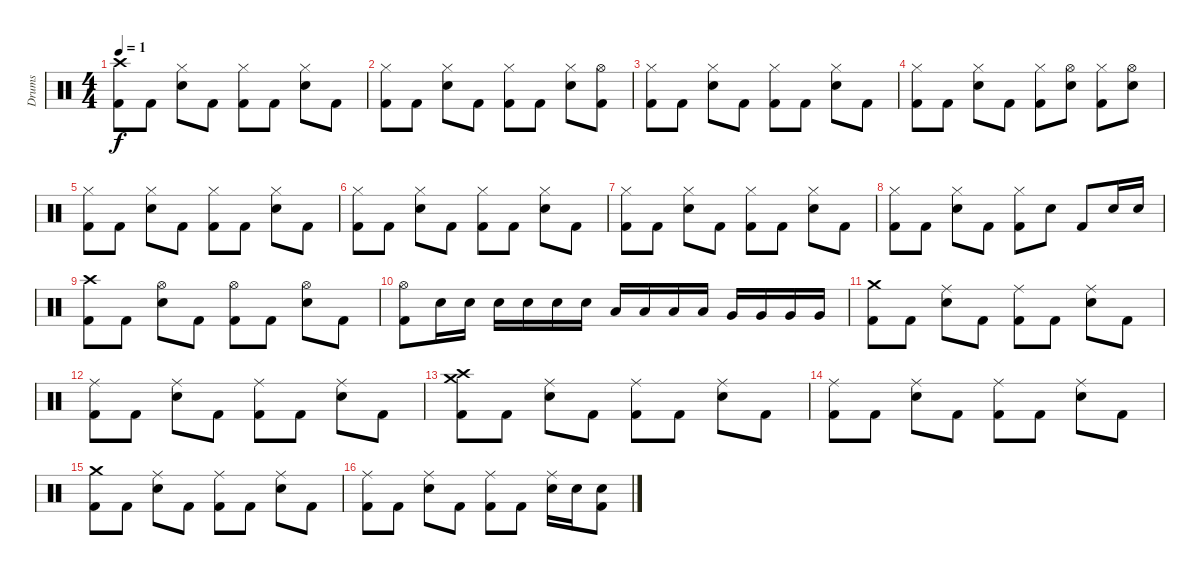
\track ("Drums" "Drums") {instrument percussion}
\staff {score}
\articulation defaults
\ts (4 4)
\tempo 1
\clef neutral
\ks c
("Crash high (hit)" "Kick (hit) 2").8{dy f} "Kick (hit) 2".8 ("Snare (hit) 2" "Hi-Hat (closed)").8 "Kick (hit) 2".8 ("Kick (hit) 2" "Hi-Hat (closed)").8 "Kick (hit) 2".8 ("Snare (hit) 2" "Hi-Hat (closed)").8 "Kick (hit) 2".8 |
("Kick (hit) 2" "Hi-Hat (closed)").8 "Kick (hit) 2".8 ("Snare (hit) 2" "Hi-Hat (closed)").8 "Kick (hit) 2".8 ("Kick (hit) 2" "Hi-Hat (closed)").8 "Kick (hit) 2".8 ("Snare (hit) 2" "Hi-Hat (closed)").8 ("Kick (hit) 2" "Hi-Hat (open)").8 |
("Kick (hit) 2" "Hi-Hat (closed)").8 "Kick (hit) 2".8 ("Snare (hit) 2" "Hi-Hat (closed)").8 "Kick (hit) 2".8 ("Kick (hit) 2" "Hi-Hat (closed)").8 "Kick (hit) 2".8 ("Snare (hit) 2" "Hi-Hat (closed)").8 "Kick (hit) 2".8 |
("Kick (hit) 2" "Hi-Hat (closed)").8 "Kick (hit) 2".8 ("Snare (hit) 2" "Hi-Hat (closed)").8 "Kick (hit) 2".8 ("Kick (hit) 2" "Hi-Hat (closed)").8 ("Hi-Hat (open)" "Snare (hit) 2").8 ("Kick (hit) 2" "Hi-Hat (closed)").8 ("Hi-Hat (open)" "Snare (hit) 2").8 |
("Kick (hit) 2" "Hi-Hat (closed)").8 "Kick (hit) 2".8 ("Snare (hit) 2" "Hi-Hat (closed)").8 "Kick (hit) 2".8 ("Kick (hit) 2" "Hi-Hat (closed)").8 "Kick (hit) 2".8 ("Snare (hit) 2" "Hi-Hat (closed)").8 "Kick (hit) 2".8 |
("Kick (hit) 2" "Hi-Hat (closed)").8 "Kick (hit) 2".8 ("Snare (hit) 2" "Hi-Hat (closed)").8 "Kick (hit) 2".8 ("Kick (hit) 2" "Hi-Hat (closed)").8 "Kick (hit) 2".8 ("Snare (hit) 2" "Hi-Hat (closed)").8 "Kick (hit) 2".8 |
("Kick (hit) 2" "Hi-Hat (closed)").8 "Kick (hit) 2".8 ("Snare (hit) 2" "Hi-Hat (closed)").8 "Kick (hit) 2".8 ("Kick (hit) 2" "Hi-Hat (closed)").8 "Kick (hit) 2".8 ("Snare (hit) 2" "Hi-Hat (closed)").8 "Kick (hit) 2".8 |
("Kick (hit) 2" "Hi-Hat (closed)").8 "Kick (hit) 2".8 ("Snare (hit) 2" "Hi-Hat (closed)").8 "Kick (hit) 2".8 ("Kick (hit) 2" "Hi-Hat (closed)").8 "Snare (hit) 2".8 "Kick (hit) 2".8 "Snare (hit) 2".16 "Snare (hit) 2".16 |
("Crash high (hit)" "Kick (hit) 2").8 "Kick (hit) 2".8 ("Hi-Hat (open)" "Snare (hit) 2").8 "Kick (hit) 2".8 ("Hi-Hat (open)" "Kick (hit) 2").8 "Kick (hit) 2".8 ("Hi-Hat (open)" "Snare (hit) 2").8 "Kick (hit) 2".8 |
("Hi-Hat (open)" "Kick (hit) 2").8 "Snare (hit) 2".16 "Snare (hit) 2".16 "Snare (hit) 2".16 "Snare (hit) 2".16 "Snare (hit) 2".16 "Snare (hit) 2".16 "Low Tom (hit)".16 "Low Tom (hit)".16 "Low Tom (hit)".16 "Low Tom (hit)".16 "Very Low Tom (hit)".16 "Very Low Tom (hit)".16 "Very Low Tom (hit)".16 "Very Low Tom (hit)".16 |
("Crash medium (hit)" "Kick (hit) 2").8 "Kick (hit) 2".8 ("Ride (middle)" "Snare (hit) 2").8 "Kick (hit) 2".8 ("Ride (middle)" "Kick (hit) 2").8 "Kick (hit) 2".8 ("Ride (middle)" "Snare (hit) 2").8 "Kick (hit) 2".8 |
("Ride (middle)" "Kick (hit) 2").8 "Kick (hit) 2".8 ("Ride (middle)" "Snare (hit) 2").8 "Kick (hit) 2".8 ("Ride (middle)" "Kick (hit) 2").8 "Kick (hit) 2".8 ("Ride (middle)" "Snare (hit) 2").8 "Kick (hit) 2".8 |
("Crash medium (hit)" "Kick (hit) 2" "Crash high (hit)").8 "Kick (hit) 2".8 ("Ride (middle)" "Snare (hit) 2").8 "Kick (hit) 2".8 ("Ride (middle)" "Kick (hit) 2").8 "Kick (hit) 2".8 ("Ride (middle)" "Snare (hit) 2").8 "Kick (hit) 2".8 |
("Ride (middle)" "Kick (hit) 2").8 "Kick (hit) 2".8 ("Ride (middle)" "Snare (hit) 2").8 "Kick (hit) 2".8 ("Ride (middle)" "Kick (hit) 2").8 "Kick (hit) 2".8 ("Ride (middle)" "Snare (hit) 2").8 "Kick (hit) 2".8 |
("Crash medium (hit)" "Kick (hit) 2").8 "Kick (hit) 2".8 ("Ride (middle)" "Snare (hit) 2").8 "Kick (hit) 2".8 ("Ride (middle)" "Kick (hit) 2").8 "Kick (hit) 2".8 ("Ride (middle)" "Snare (hit) 2").8 "Kick (hit) 2".8 |
("Ride (middle)" "Kick (hit) 2").8 "Kick (hit) 2".8 ("Ride (middle)" "Snare (hit) 2").8 "Kick (hit) 2".8 ("Ride (middle)" "Kick (hit) 2").8 "Kick (hit) 2".8 ("Ride (middle)" "Snare (hit) 2").16 "Snare (hit) 2".16 ("Snare (hit) 2" "Kick (hit) 2").8
